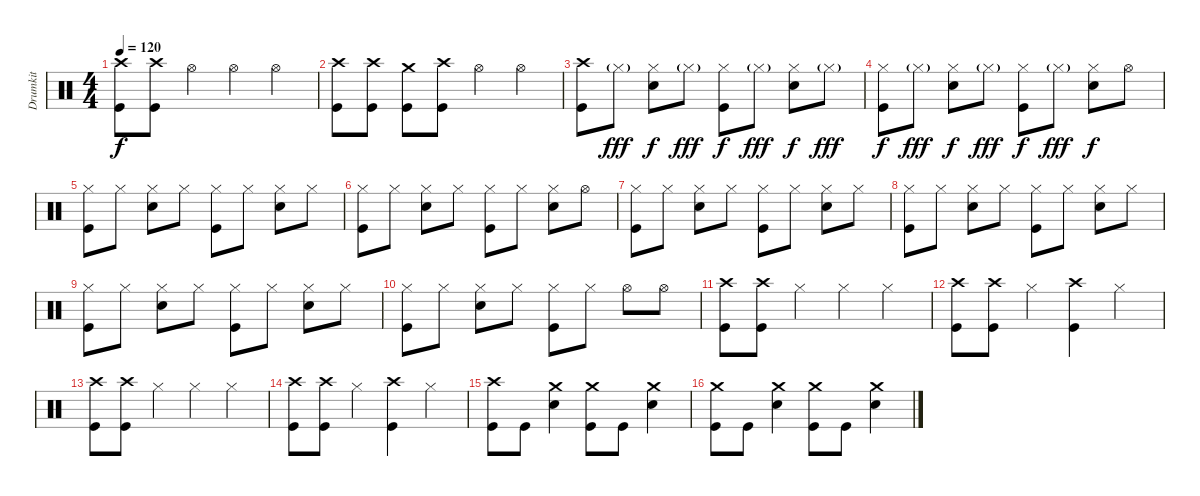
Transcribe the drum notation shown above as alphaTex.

\track ("Drumkit" "Drumkit") {instrument percussion}
\staff {score}
\articulation defaults
\ts (4 4)
\tempo 120
\clef neutral
\ks c
("Crash high (hit)" "Kick (hit)").8{dy f} ("Crash high (hit)" "Kick (hit)").8 "Hi-Hat (open)".4 "Hi-Hat (open)".4 "Hi-Hat (open)".4 |
("Crash high (hit)" "Kick (hit)").8 ("Crash high (hit)" "Kick (hit)").8 ("Crash medium (hit)" "Kick (hit)").8 ("Crash high (hit)" "Kick (hit)").8 "Hi-Hat (open)".4 "Hi-Hat (open)".4 |
("Crash high (hit)" "Kick (hit)").8 "Hi-Hat (closed)"{g}.8{dy fff} ("Hi-Hat (closed)" "Snare (hit) 2").8{dy f} "Hi-Hat (closed)"{g}.8{dy fff} ("Hi-Hat (closed)" "Kick (hit)").8{dy f} "Hi-Hat (closed)"{g}.8{dy fff} ("Hi-Hat (closed)" "Snare (hit) 2").8{dy f} "Hi-Hat (closed)"{g}.8{dy fff} |
("Hi-Hat (closed)" "Kick (hit)").8{dy f} "Hi-Hat (closed)"{g}.8{dy fff} ("Hi-Hat (closed)" "Snare (hit) 2").8{dy f} "Hi-Hat (closed)"{g}.8{dy fff} ("Hi-Hat (closed)" "Kick (hit)").8{dy f} "Hi-Hat (closed)"{g}.8{dy fff} ("Hi-Hat (closed)" "Snare (hit) 2").8{dy f} "Hi-Hat (open)".8 |
("Hi-Hat (closed)" "Kick (hit)").8 "Hi-Hat (closed)".8 ("Hi-Hat (closed)" "Snare (hit) 2").8 "Hi-Hat (closed)".8 ("Hi-Hat (closed)" "Kick (hit)").8 "Hi-Hat (closed)".8 ("Hi-Hat (closed)" "Snare (hit) 2").8 "Hi-Hat (closed)".8 |
("Hi-Hat (closed)" "Kick (hit)").8 "Hi-Hat (closed)".8 ("Hi-Hat (closed)" "Snare (hit) 2").8 "Hi-Hat (closed)".8 ("Hi-Hat (closed)" "Kick (hit)").8 "Hi-Hat (closed)".8 ("Hi-Hat (closed)" "Snare (hit) 2").8 "Hi-Hat (open)".8 |
("Hi-Hat (closed)" "Kick (hit)").8 "Hi-Hat (closed)".8 ("Hi-Hat (closed)" "Snare (hit) 2").8 "Hi-Hat (closed)".8 ("Hi-Hat (closed)" "Kick (hit)").8 "Hi-Hat (closed)".8 ("Hi-Hat (closed)" "Snare (hit) 2").8 "Hi-Hat (closed)".8 |
("Hi-Hat (closed)" "Kick (hit)").8 "Hi-Hat (closed)".8 ("Hi-Hat (closed)" "Snare (hit) 2").8 "Hi-Hat (closed)".8 ("Hi-Hat (closed)" "Kick (hit)").8 "Hi-Hat (closed)".8 ("Hi-Hat (closed)" "Snare (hit) 2").8 "Hi-Hat (closed)".8 |
("Hi-Hat (closed)" "Kick (hit)").8 "Hi-Hat (closed)".8 ("Hi-Hat (closed)" "Snare (hit) 2").8 "Hi-Hat (closed)".8 ("Hi-Hat (closed)" "Kick (hit)").8 "Hi-Hat (closed)".8 ("Hi-Hat (closed)" "Snare (hit) 2").8 "Hi-Hat (closed)".8 |
("Hi-Hat (closed)" "Kick (hit)").8 "Hi-Hat (closed)".8 ("Hi-Hat (closed)" "Snare (hit) 2").8 "Hi-Hat (closed)".8 ("Hi-Hat (closed)" "Kick (hit)").8 "Hi-Hat (closed)".8 "Hi-Hat (open)".8 "Hi-Hat (open)".8 |
("Crash high (hit)" "Kick (hit)").8 ("Crash high (hit)" "Kick (hit)").8 "Hi-Hat (closed)".4 "Hi-Hat (closed)".4 "Hi-Hat (closed)".4 |
("Crash high (hit)" "Kick (hit)").8 ("Crash high (hit)" "Kick (hit)").8 "Hi-Hat (closed)".4 ("Crash high (hit)" "Kick (hit)").4 "Hi-Hat (closed)".4 |
("Crash high (hit)" "Kick (hit)").8 ("Crash high (hit)" "Kick (hit)").8 "Hi-Hat (closed)".4 "Hi-Hat (closed)".4 "Hi-Hat (closed)".4 |
("Crash high (hit)" "Kick (hit)").8 ("Crash high (hit)" "Kick (hit)").8 "Hi-Hat (closed)".4 ("Crash high (hit)" "Kick (hit)").4 "Hi-Hat (closed)".4 |
("Crash high (hit)" "Kick (hit)").8 "Kick (hit)".8 ("Crash medium (hit)" "Snare (hit) 2").4 ("Crash medium (hit)" "Kick (hit)").8 "Kick (hit)".8 ("Crash medium (hit)" "Snare (hit) 2").4 |
("Crash medium (hit)" "Kick (hit)").8 "Kick (hit)".8 ("Crash medium (hit)" "Snare (hit) 2").4 ("Crash medium (hit)" "Kick (hit)").8 "Kick (hit)".8 ("Crash medium (hit)" "Snare (hit) 2").4
